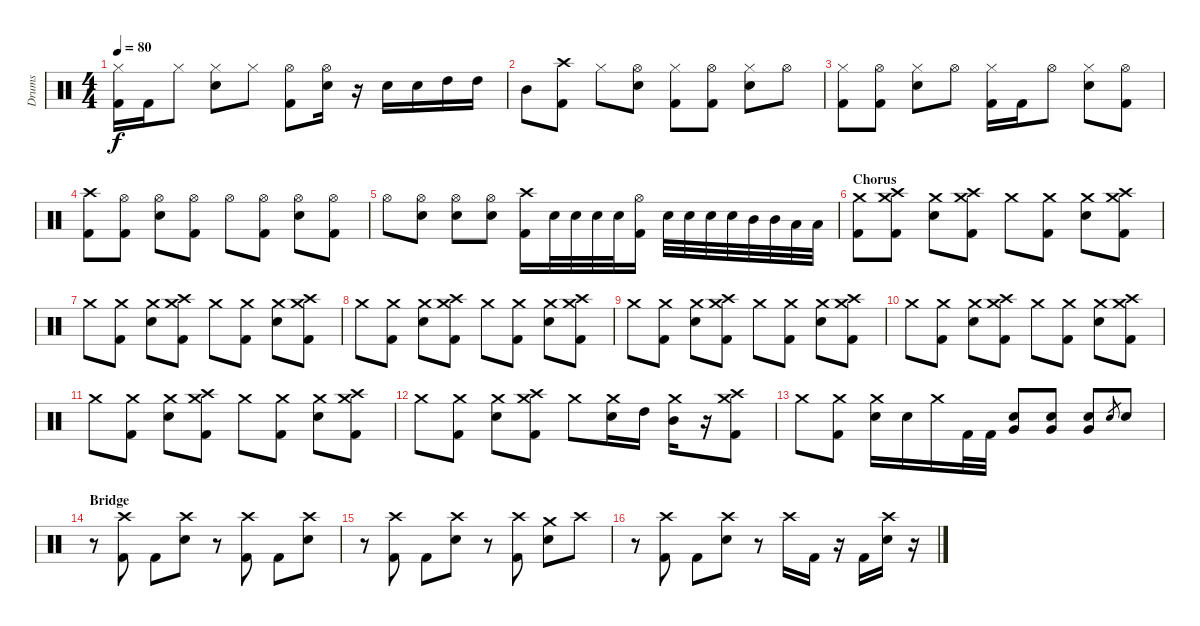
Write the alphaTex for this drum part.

\track ("Drums" "Drums") {instrument percussion}
\staff {score}
\articulation defaults
\ts (4 4)
\tempo 80
\clef neutral
\ks c
("Hi-Hat (closed)" "Kick (hit) 2").16{dy f} "Kick (hit) 2".16 "Hi-Hat (closed)".8 ("Hi-Hat (closed)" "Electric Snare (hit)").8 "Hi-Hat (closed)".8 ("Hi-Hat (open)" "Kick (hit) 2").8 ("Hi-Hat (open)" "Electric Snare (hit)").16 r.16 "Electric Snare (hit)".16 "Electric Snare (hit)".16 "High Tom (hit)".16 "High Tom (hit)".16 |
"Mid Tom (hit)".8 ("Crash high (hit)" "Kick (hit) 2").8 "Hi-Hat (closed)".8 ("Hi-Hat (open)" "Electric Snare (hit)").8 ("Hi-Hat (closed)" "Kick (hit) 2").8 ("Hi-Hat (open)" "Kick (hit) 2").8 ("Hi-Hat (closed)" "Electric Snare (hit)").8 "Hi-Hat (open)".8 |
("Hi-Hat (closed)" "Kick (hit) 2").8 ("Hi-Hat (open)" "Kick (hit) 2").8 ("Hi-Hat (closed)" "Electric Snare (hit)").8 "Hi-Hat (open)".8 ("Hi-Hat (closed)" "Kick (hit) 2").16 "Kick (hit) 2".16 "Hi-Hat (open)".8 ("Hi-Hat (closed)" "Electric Snare (hit)").8 ("Hi-Hat (open)" "Kick (hit) 2").8 |
("Crash high (hit)" "Kick (hit) 2").8 ("Hi-Hat (open)" "Kick (hit) 2").8 ("Hi-Hat (open)" "Electric Snare (hit)").8 ("Hi-Hat (open)" "Kick (hit) 2").8 "Hi-Hat (open)".8 ("Hi-Hat (open)" "Kick (hit) 2").8 ("Hi-Hat (open)" "Electric Snare (hit)").8 ("Hi-Hat (open)" "Kick (hit) 2").8 |
"Hi-Hat (open)".8 ("Hi-Hat (open)" "Electric Snare (hit)").8 ("Hi-Hat (open)" "Electric Snare (hit)").8 ("Hi-Hat (open)" "Electric Snare (hit)").8 ("Crash high (hit)" "Kick (hit) 2").16 "Electric Snare (hit)".32 "Electric Snare (hit)".32 "Electric Snare (hit)".32 "Electric Snare (hit)".32 ("Hi-Hat (open)" "Kick (hit) 2").16 "Electric Snare (hit)".32 "Electric Snare (hit)".32 "Electric Snare (hit)".32 "Electric Snare (hit)".32 "Mid Tom (hit)".32 "Mid Tom (hit)".32 "Low Tom (hit)".32 "Low Tom (hit)".32 |
\section ("" "Chorus")
("Crash medium (hit)" "Kick (hit) 2").8 ("Crash medium (hit)" "Crash high (hit)" "Kick (hit) 2").8 ("Crash medium (hit)" "Electric Snare (hit)").8 ("Crash medium (hit)" "Crash high (hit)" "Kick (hit) 2").8 "Crash medium (hit)".8 ("Crash medium (hit)" "Kick (hit) 2").8 ("Crash medium (hit)" "Electric Snare (hit)").8 ("Crash medium (hit)" "Crash high (hit)" "Kick (hit) 2").8 |
"Crash medium (hit)".8 ("Crash medium (hit)" "Kick (hit) 2").8 ("Crash medium (hit)" "Electric Snare (hit)").8 ("Crash medium (hit)" "Crash high (hit)" "Kick (hit) 2").8 "Crash medium (hit)".8 ("Crash medium (hit)" "Kick (hit) 2").8 ("Crash medium (hit)" "Electric Snare (hit)").8 ("Crash medium (hit)" "Crash high (hit)" "Kick (hit) 2").8 |
"Crash medium (hit)".8 ("Crash medium (hit)" "Kick (hit) 2").8 ("Crash medium (hit)" "Electric Snare (hit)").8 ("Crash medium (hit)" "Crash high (hit)" "Kick (hit) 2").8 "Crash medium (hit)".8 ("Crash medium (hit)" "Kick (hit) 2").8 ("Crash medium (hit)" "Electric Snare (hit)").8 ("Crash medium (hit)" "Crash high (hit)" "Kick (hit) 2").8 |
"Crash medium (hit)".8 ("Crash medium (hit)" "Kick (hit) 2").8 ("Crash medium (hit)" "Electric Snare (hit)").8 ("Crash medium (hit)" "Crash high (hit)" "Kick (hit) 2").8 "Crash medium (hit)".8 ("Crash medium (hit)" "Kick (hit) 2").8 ("Crash medium (hit)" "Electric Snare (hit)").8 ("Crash medium (hit)" "Crash high (hit)" "Kick (hit) 2").8 |
"Crash medium (hit)".8 ("Crash medium (hit)" "Kick (hit) 2").8 ("Crash medium (hit)" "Electric Snare (hit)").8 ("Crash medium (hit)" "Crash high (hit)" "Kick (hit) 2").8 "Crash medium (hit)".8 ("Crash medium (hit)" "Kick (hit) 2").8 ("Crash medium (hit)" "Electric Snare (hit)").8 ("Crash medium (hit)" "Crash high (hit)" "Kick (hit) 2").8 |
"Crash medium (hit)".8 ("Crash medium (hit)" "Kick (hit) 2").8 ("Crash medium (hit)" "Electric Snare (hit)").8 ("Crash medium (hit)" "Crash high (hit)" "Kick (hit) 2").8 "Crash medium (hit)".8 ("Crash medium (hit)" "Kick (hit) 2").8 ("Crash medium (hit)" "Electric Snare (hit)").8 ("Crash medium (hit)" "Crash high (hit)" "Kick (hit) 2").8 |
"Crash medium (hit)".8 ("Crash medium (hit)" "Kick (hit) 2").8 ("Crash medium (hit)" "Electric Snare (hit)").8 ("Crash medium (hit)" "Crash high (hit)" "Kick (hit) 2").8 "Crash medium (hit)".8 ("Crash medium (hit)" "Electric Snare (hit)").16 "High Tom (hit)".16 ("Crash medium (hit)" "Mid Tom (hit)").16 r.16 ("Crash medium (hit)" "Crash high (hit)" "Kick (hit) 2").8 |
"Crash medium (hit)".8 ("Crash medium (hit)" "Kick (hit) 2").8 ("Crash medium (hit)" "Electric Snare (hit)").16 "Electric Snare (hit)".16 "Crash medium (hit)".16 "Kick (hit) 2".32 "Kick (hit) 2".32 ("Electric Snare (hit)" "Very Low Tom (hit)").8 ("Electric Snare (hit)" "Very Low Tom (hit)").8 ("Electric Snare (hit)" "Very Low Tom (hit)").8 "Electric Snare (hit)".8{gr} "Electric Snare (hit)".8 |
\section ("" "Bridge")
r.8 ("Crash high (hit)" "Kick (hit) 2").8 "Kick (hit) 2".8 ("Crash high (hit)" "Electric Snare (hit)").8 r.8 ("Crash high (hit)" "Kick (hit) 2").8 "Kick (hit) 2".8 ("Crash high (hit)" "Electric Snare (hit)").8 |
r.8 ("Crash high (hit)" "Kick (hit) 2").8 "Kick (hit) 2".8 ("Crash high (hit)" "Electric Snare (hit)").8 r.8 ("Crash high (hit)" "Kick (hit) 2").8 ("Crash medium (hit)" "Electric Snare (hit)").8 "Crash high (hit)".8 |
r.8 ("Crash high (hit)" "Kick (hit) 2").8 "Kick (hit) 2".8 ("Crash high (hit)" "Electric Snare (hit)").8 r.8 "Crash high (hit)".16 "Kick (hit) 2".16 r.16 "Kick (hit) 2".16 ("Crash high (hit)" "Electric Snare (hit)").16 r.16
